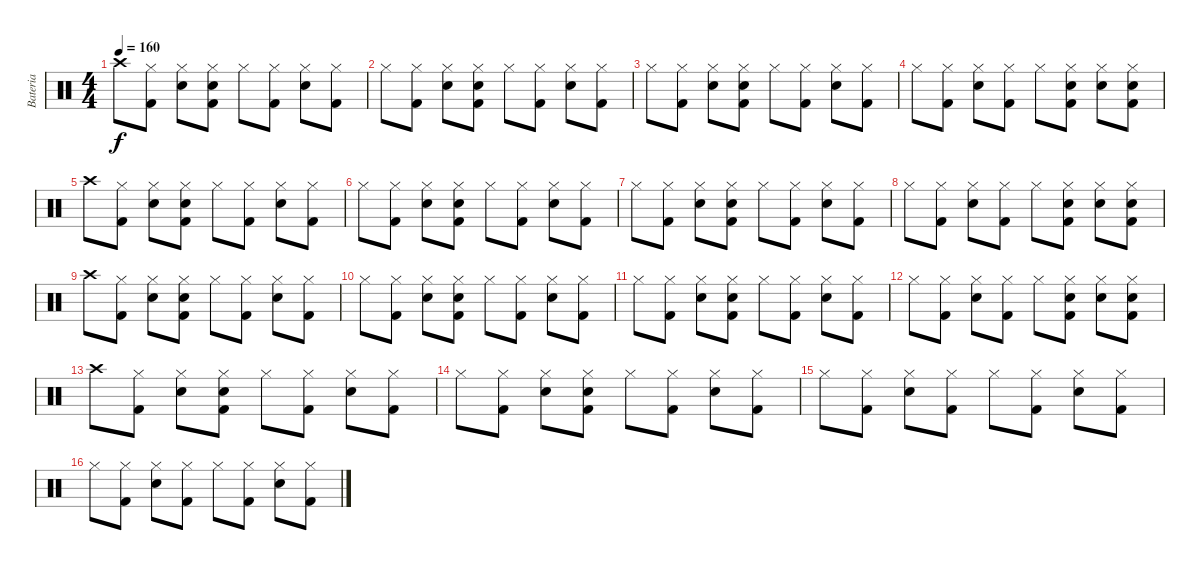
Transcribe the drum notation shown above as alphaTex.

\track ("Bateria" "Bateria") {instrument percussion}
\staff {score}
\articulation defaults
\ts (4 4)
\tempo 160
\clef neutral
\ks c "Crash high (hit)".8{dy f}
("Hi-Hat (closed)" "Kick (hit) 2").8 ("Hi-Hat (closed)" "Snare (hit) 2").8 ("Hi-Hat (closed)" "Snare (hit) 2" "Kick (hit) 2").8 "Hi-Hat (closed)".8 ("Hi-Hat (closed)" "Kick (hit) 2").8 ("Hi-Hat (closed)" "Snare (hit) 2").8 ("Hi-Hat (closed)" "Kick (hit) 2").8 |
"Hi-Hat (closed)".8 ("Hi-Hat (closed)" "Kick (hit) 2").8 ("Hi-Hat (closed)" "Snare (hit) 2").8 ("Hi-Hat (closed)" "Snare (hit) 2" "Kick (hit) 2").8 "Hi-Hat (closed)".8 ("Hi-Hat (closed)" "Kick (hit) 2").8 ("Hi-Hat (closed)" "Snare (hit) 2").8 ("Hi-Hat (closed)" "Kick (hit) 2").8 |
"Hi-Hat (closed)".8 ("Hi-Hat (closed)" "Kick (hit) 2").8 ("Hi-Hat (closed)" "Snare (hit) 2").8 ("Hi-Hat (closed)" "Snare (hit) 2" "Kick (hit) 2").8 "Hi-Hat (closed)".8 ("Hi-Hat (closed)" "Kick (hit) 2").8 ("Hi-Hat (closed)" "Snare (hit) 2").8 ("Hi-Hat (closed)" "Kick (hit) 2").8 |
"Hi-Hat (closed)".8 ("Hi-Hat (closed)" "Kick (hit) 2").8 ("Hi-Hat (closed)" "Snare (hit) 2").8 ("Hi-Hat (closed)" "Kick (hit) 2").8 "Hi-Hat (closed)".8 ("Hi-Hat (closed)" "Snare (hit) 2" "Kick (hit) 2").8 ("Hi-Hat (closed)" "Snare (hit) 2").8 ("Hi-Hat (closed)" "Snare (hit) 2" "Kick (hit) 2").8 |
"Crash high (hit)".8 ("Hi-Hat (closed)" "Kick (hit) 2").8 ("Hi-Hat (closed)" "Snare (hit) 2").8 ("Hi-Hat (closed)" "Snare (hit) 2" "Kick (hit) 2").8 "Hi-Hat (closed)".8 ("Hi-Hat (closed)" "Kick (hit) 2").8 ("Hi-Hat (closed)" "Snare (hit) 2").8 ("Hi-Hat (closed)" "Kick (hit) 2").8 |
"Hi-Hat (closed)".8 ("Hi-Hat (closed)" "Kick (hit) 2").8 ("Hi-Hat (closed)" "Snare (hit) 2").8 ("Hi-Hat (closed)" "Snare (hit) 2" "Kick (hit) 2").8 "Hi-Hat (closed)".8 ("Hi-Hat (closed)" "Kick (hit) 2").8 ("Hi-Hat (closed)" "Snare (hit) 2").8 ("Hi-Hat (closed)" "Kick (hit) 2").8 |
"Hi-Hat (closed)".8 ("Hi-Hat (closed)" "Kick (hit) 2").8 ("Hi-Hat (closed)" "Snare (hit) 2").8 ("Hi-Hat (closed)" "Snare (hit) 2" "Kick (hit) 2").8 "Hi-Hat (closed)".8 ("Hi-Hat (closed)" "Kick (hit) 2").8 ("Hi-Hat (closed)" "Snare (hit) 2").8 ("Hi-Hat (closed)" "Kick (hit) 2").8 |
"Hi-Hat (closed)".8 ("Hi-Hat (closed)" "Kick (hit) 2").8 ("Hi-Hat (closed)" "Snare (hit) 2").8 ("Hi-Hat (closed)" "Kick (hit) 2").8 "Hi-Hat (closed)".8 ("Hi-Hat (closed)" "Snare (hit) 2" "Kick (hit) 2").8 ("Hi-Hat (closed)" "Snare (hit) 2").8 ("Hi-Hat (closed)" "Snare (hit) 2" "Kick (hit) 2").8 |
"Crash high (hit)".8 ("Hi-Hat (closed)" "Kick (hit) 2").8 ("Hi-Hat (closed)" "Snare (hit) 2").8 ("Hi-Hat (closed)" "Snare (hit) 2" "Kick (hit) 2").8 "Hi-Hat (closed)".8 ("Hi-Hat (closed)" "Kick (hit) 2").8 ("Hi-Hat (closed)" "Snare (hit) 2").8 ("Hi-Hat (closed)" "Kick (hit) 2").8 |
"Hi-Hat (closed)".8 ("Hi-Hat (closed)" "Kick (hit) 2").8 ("Hi-Hat (closed)" "Snare (hit) 2").8 ("Hi-Hat (closed)" "Snare (hit) 2" "Kick (hit) 2").8 "Hi-Hat (closed)".8 ("Hi-Hat (closed)" "Kick (hit) 2").8 ("Hi-Hat (closed)" "Snare (hit) 2").8 ("Hi-Hat (closed)" "Kick (hit) 2").8 |
"Hi-Hat (closed)".8 ("Hi-Hat (closed)" "Kick (hit) 2").8 ("Hi-Hat (closed)" "Snare (hit) 2").8 ("Hi-Hat (closed)" "Snare (hit) 2" "Kick (hit) 2").8 "Hi-Hat (closed)".8 ("Hi-Hat (closed)" "Kick (hit) 2").8 ("Hi-Hat (closed)" "Snare (hit) 2").8 ("Hi-Hat (closed)" "Kick (hit) 2").8 |
"Hi-Hat (closed)".8 ("Hi-Hat (closed)" "Kick (hit) 2").8 ("Hi-Hat (closed)" "Snare (hit) 2").8 ("Hi-Hat (closed)" "Kick (hit) 2").8 "Hi-Hat (closed)".8 ("Hi-Hat (closed)" "Snare (hit) 2" "Kick (hit) 2").8 ("Hi-Hat (closed)" "Snare (hit) 2").8 ("Hi-Hat (closed)" "Snare (hit) 2" "Kick (hit) 2").8 |
"Crash high (hit)".8 ("Hi-Hat (closed)" "Kick (hit) 2").8 ("Hi-Hat (closed)" "Snare (hit) 2").8 ("Hi-Hat (closed)" "Snare (hit) 2" "Kick (hit) 2").8 "Hi-Hat (closed)".8 ("Hi-Hat (closed)" "Kick (hit) 2").8 ("Hi-Hat (closed)" "Snare (hit) 2").8 ("Hi-Hat (closed)" "Kick (hit) 2").8 |
"Hi-Hat (closed)".8 ("Hi-Hat (closed)" "Kick (hit) 2").8 ("Hi-Hat (closed)" "Snare (hit) 2").8 ("Hi-Hat (closed)" "Snare (hit) 2" "Kick (hit) 2").8 "Hi-Hat (closed)".8 ("Hi-Hat (closed)" "Kick (hit) 2").8 ("Hi-Hat (closed)" "Snare (hit) 2").8 ("Hi-Hat (closed)" "Kick (hit) 2").8 |
"Hi-Hat (closed)".8 ("Hi-Hat (closed)" "Kick (hit) 2").8 ("Hi-Hat (closed)" "Snare (hit) 2").8 ("Hi-Hat (closed)" "Kick (hit) 2").8 "Hi-Hat (closed)".8 ("Hi-Hat (closed)" "Kick (hit) 2").8 ("Hi-Hat (closed)" "Snare (hit) 2").8 ("Hi-Hat (closed)" "Kick (hit) 2").8 |
"Hi-Hat (closed)".8 ("Hi-Hat (closed)" "Kick (hit) 2").8 ("Hi-Hat (closed)" "Snare (hit) 2").8 ("Hi-Hat (closed)" "Kick (hit) 2").8 "Hi-Hat (closed)".8 ("Hi-Hat (closed)" "Kick (hit) 2").8 ("Hi-Hat (closed)" "Snare (hit) 2").8 ("Hi-Hat (closed)" "Kick (hit) 2").8
